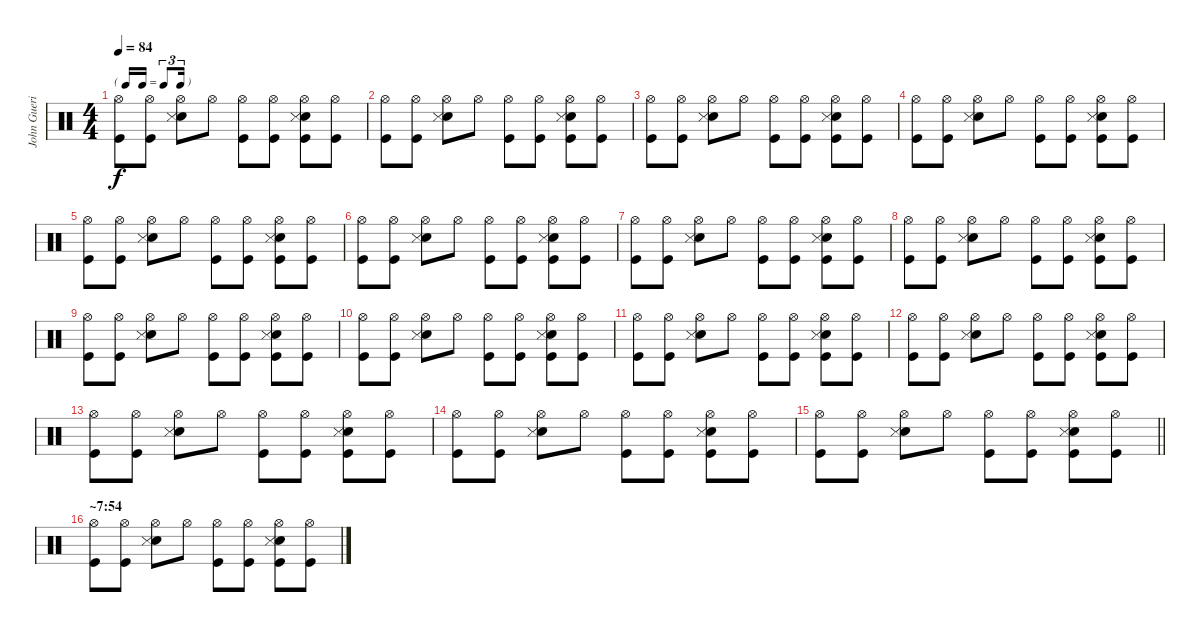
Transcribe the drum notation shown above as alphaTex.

\track ("John Guerin - Drums" "John Gueri") {instrument percussion}
\staff {score}
\articulation defaults
\ts (4 4)
\tf triplet16th
\tempo 84
\clef neutral
\ks c
("Hi-Hat (open)" "Kick (hit)").8{dy f} ("Hi-Hat (open)" "Kick (hit)").8 ("Hi-Hat (open)" "Electric Snare (hit)" "Snare (side stick) 3").8 "Hi-Hat (open)".8 ("Hi-Hat (open)" "Kick (hit)").8 ("Hi-Hat (open)" "Kick (hit)").8 ("Hi-Hat (open)" "Electric Snare (hit)" "Snare (side stick) 3" "Kick (hit)").8 ("Hi-Hat (open)" "Kick (hit)").8 |
("Hi-Hat (open)" "Kick (hit)").8 ("Hi-Hat (open)" "Kick (hit)").8 ("Hi-Hat (open)" "Electric Snare (hit)" "Snare (side stick) 3").8 "Hi-Hat (open)".8 ("Hi-Hat (open)" "Kick (hit)").8 ("Hi-Hat (open)" "Kick (hit)").8 ("Hi-Hat (open)" "Electric Snare (hit)" "Snare (side stick) 3" "Kick (hit)").8 ("Hi-Hat (open)" "Kick (hit)").8 |
("Hi-Hat (open)" "Kick (hit)").8 ("Hi-Hat (open)" "Kick (hit)").8 ("Hi-Hat (open)" "Electric Snare (hit)" "Snare (side stick) 3").8 "Hi-Hat (open)".8 ("Hi-Hat (open)" "Kick (hit)").8 ("Hi-Hat (open)" "Kick (hit)").8 ("Hi-Hat (open)" "Electric Snare (hit)" "Snare (side stick) 3" "Kick (hit)").8 ("Hi-Hat (open)" "Kick (hit)").8 |
("Hi-Hat (open)" "Kick (hit)").8 ("Hi-Hat (open)" "Kick (hit)").8 ("Hi-Hat (open)" "Electric Snare (hit)" "Snare (side stick) 3").8 "Hi-Hat (open)".8 ("Hi-Hat (open)" "Kick (hit)").8 ("Hi-Hat (open)" "Kick (hit)").8 ("Hi-Hat (open)" "Electric Snare (hit)" "Snare (side stick) 3" "Kick (hit)").8 ("Hi-Hat (open)" "Kick (hit)").8 |
("Hi-Hat (open)" "Kick (hit)").8 ("Hi-Hat (open)" "Kick (hit)").8 ("Hi-Hat (open)" "Electric Snare (hit)" "Snare (side stick) 3").8 "Hi-Hat (open)".8 ("Hi-Hat (open)" "Kick (hit)").8 ("Hi-Hat (open)" "Kick (hit)").8 ("Hi-Hat (open)" "Electric Snare (hit)" "Snare (side stick) 3" "Kick (hit)").8 ("Hi-Hat (open)" "Kick (hit)").8 |
("Hi-Hat (open)" "Kick (hit)").8 ("Hi-Hat (open)" "Kick (hit)").8 ("Hi-Hat (open)" "Electric Snare (hit)" "Snare (side stick) 3").8 "Hi-Hat (open)".8 ("Hi-Hat (open)" "Kick (hit)").8 ("Hi-Hat (open)" "Kick (hit)").8 ("Hi-Hat (open)" "Electric Snare (hit)" "Snare (side stick) 3" "Kick (hit)").8 ("Hi-Hat (open)" "Kick (hit)").8 |
("Hi-Hat (open)" "Kick (hit)").8 ("Hi-Hat (open)" "Kick (hit)").8 ("Hi-Hat (open)" "Electric Snare (hit)" "Snare (side stick) 3").8 "Hi-Hat (open)".8 ("Hi-Hat (open)" "Kick (hit)").8 ("Hi-Hat (open)" "Kick (hit)").8 ("Hi-Hat (open)" "Electric Snare (hit)" "Snare (side stick) 3" "Kick (hit)").8 ("Hi-Hat (open)" "Kick (hit)").8 |
("Hi-Hat (open)" "Kick (hit)").8 ("Hi-Hat (open)" "Kick (hit)").8 ("Hi-Hat (open)" "Electric Snare (hit)" "Snare (side stick) 3").8 "Hi-Hat (open)".8 ("Hi-Hat (open)" "Kick (hit)").8 ("Hi-Hat (open)" "Kick (hit)").8 ("Hi-Hat (open)" "Electric Snare (hit)" "Snare (side stick) 3" "Kick (hit)").8 ("Hi-Hat (open)" "Kick (hit)").8 |
("Hi-Hat (open)" "Kick (hit)").8 ("Hi-Hat (open)" "Kick (hit)").8 ("Hi-Hat (open)" "Electric Snare (hit)" "Snare (side stick) 3").8 "Hi-Hat (open)".8 ("Hi-Hat (open)" "Kick (hit)").8 ("Hi-Hat (open)" "Kick (hit)").8 ("Hi-Hat (open)" "Electric Snare (hit)" "Snare (side stick) 3" "Kick (hit)").8 ("Hi-Hat (open)" "Kick (hit)").8 |
("Hi-Hat (open)" "Kick (hit)").8 ("Hi-Hat (open)" "Kick (hit)").8 ("Hi-Hat (open)" "Electric Snare (hit)" "Snare (side stick) 3").8 "Hi-Hat (open)".8 ("Hi-Hat (open)" "Kick (hit)").8 ("Hi-Hat (open)" "Kick (hit)").8 ("Hi-Hat (open)" "Electric Snare (hit)" "Snare (side stick) 3" "Kick (hit)").8 ("Hi-Hat (open)" "Kick (hit)").8 |
("Hi-Hat (open)" "Kick (hit)").8 ("Hi-Hat (open)" "Kick (hit)").8 ("Hi-Hat (open)" "Electric Snare (hit)" "Snare (side stick) 3").8 "Hi-Hat (open)".8 ("Hi-Hat (open)" "Kick (hit)").8 ("Hi-Hat (open)" "Kick (hit)").8 ("Hi-Hat (open)" "Electric Snare (hit)" "Snare (side stick) 3" "Kick (hit)").8 ("Hi-Hat (open)" "Kick (hit)").8 |
("Hi-Hat (open)" "Kick (hit)").8 ("Hi-Hat (open)" "Kick (hit)").8 ("Hi-Hat (open)" "Electric Snare (hit)" "Snare (side stick) 3").8 "Hi-Hat (open)".8 ("Hi-Hat (open)" "Kick (hit)").8 ("Hi-Hat (open)" "Kick (hit)").8 ("Hi-Hat (open)" "Electric Snare (hit)" "Snare (side stick) 3" "Kick (hit)").8 ("Hi-Hat (open)" "Kick (hit)").8 |
("Hi-Hat (open)" "Kick (hit)").8 ("Hi-Hat (open)" "Kick (hit)").8 ("Hi-Hat (open)" "Electric Snare (hit)" "Snare (side stick) 3").8 "Hi-Hat (open)".8 ("Hi-Hat (open)" "Kick (hit)").8 ("Hi-Hat (open)" "Kick (hit)").8 ("Hi-Hat (open)" "Electric Snare (hit)" "Snare (side stick) 3" "Kick (hit)").8 ("Hi-Hat (open)" "Kick (hit)").8 |
("Hi-Hat (open)" "Kick (hit)").8 ("Hi-Hat (open)" "Kick (hit)").8 ("Hi-Hat (open)" "Electric Snare (hit)" "Snare (side stick) 3").8 "Hi-Hat (open)".8 ("Hi-Hat (open)" "Kick (hit)").8 ("Hi-Hat (open)" "Kick (hit)").8 ("Hi-Hat (open)" "Electric Snare (hit)" "Snare (side stick) 3" "Kick (hit)").8 ("Hi-Hat (open)" "Kick (hit)").8 |
\barLineRight lightlight
("Hi-Hat (open)" "Kick (hit)").8 ("Hi-Hat (open)" "Kick (hit)").8 ("Hi-Hat (open)" "Electric Snare (hit)" "Snare (side stick) 3").8 "Hi-Hat (open)".8 ("Hi-Hat (open)" "Kick (hit)").8 ("Hi-Hat (open)" "Kick (hit)").8 ("Hi-Hat (open)" "Electric Snare (hit)" "Snare (side stick) 3" "Kick (hit)").8 ("Hi-Hat (open)" "Kick (hit)").8 |
\section ("" "~7:54")
("Hi-Hat (open)" "Kick (hit)").8 ("Hi-Hat (open)" "Kick (hit)").8 ("Hi-Hat (open)" "Electric Snare (hit)" "Snare (side stick) 3").8 "Hi-Hat (open)".8 ("Hi-Hat (open)" "Kick (hit)").8 ("Hi-Hat (open)" "Kick (hit)").8 ("Hi-Hat (open)" "Electric Snare (hit)" "Snare (side stick) 3" "Kick (hit)").8 ("Hi-Hat (open)" "Kick (hit)").8
